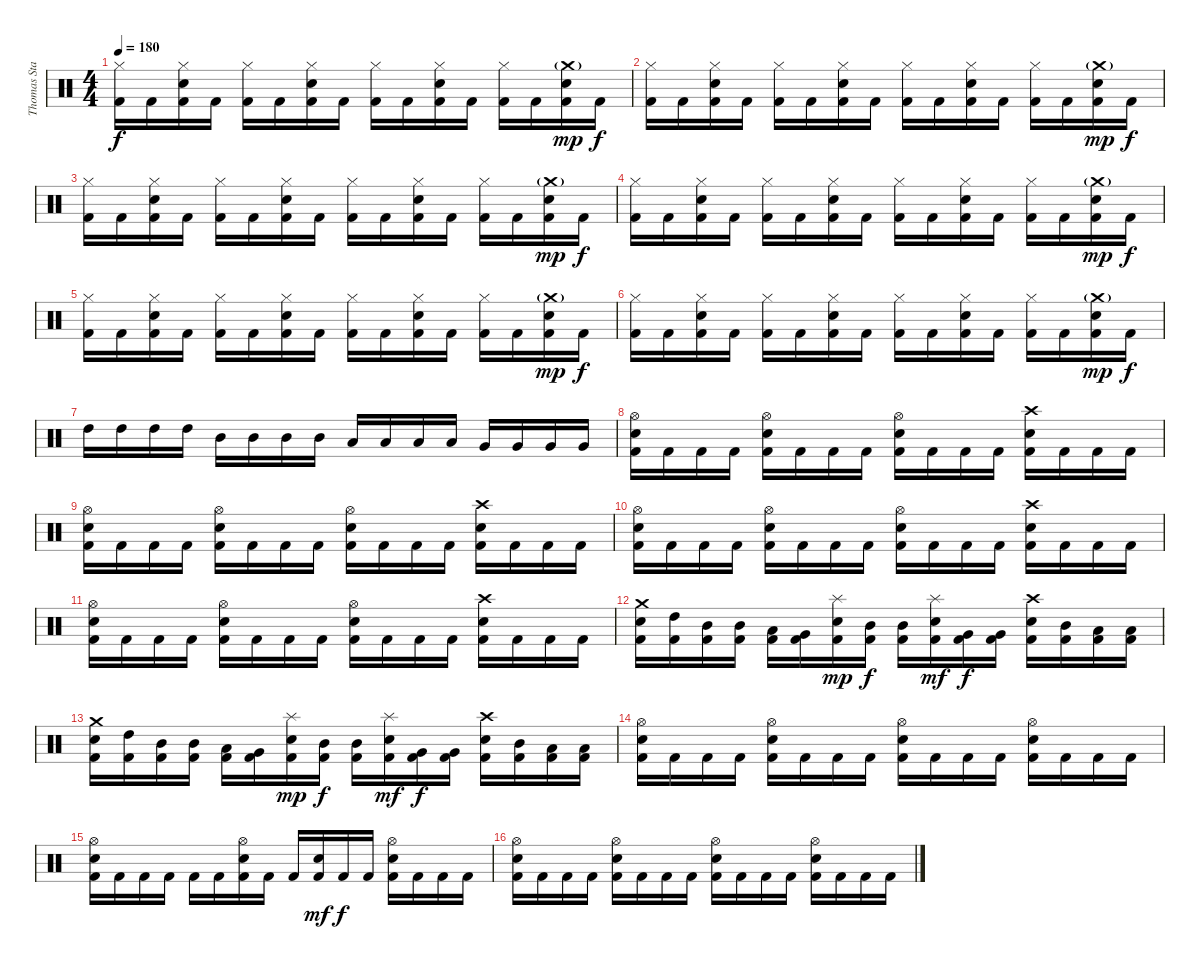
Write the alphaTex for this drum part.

\track ("Thomas Stauch" "Thomas Sta") {instrument percussion}
\staff {score}
\articulation defaults
\ts (4 4)
\tempo 180
\clef neutral
\ks c
("Hi-Hat (closed)" "Kick (hit) 2").16{dy f} "Kick (hit) 2".16 ("Hi-Hat (closed)" "Electric Snare (hit)" "Kick (hit) 2").16 "Kick (hit) 2".16 ("Hi-Hat (closed)" "Kick (hit) 2").16 "Kick (hit) 2".16 ("Hi-Hat (closed)" "Electric Snare (hit)" "Kick (hit) 2").16 "Kick (hit) 2".16 ("Hi-Hat (closed)" "Kick (hit) 2").16 "Kick (hit) 2".16 ("Hi-Hat (closed)" "Electric Snare (hit)" "Kick (hit) 2").16 "Kick (hit) 2".16 ("Hi-Hat (closed)" "Kick (hit) 2").16 "Kick (hit) 2".16 ("Crash medium (hit)"{g} "Electric Snare (hit)" "Kick (hit) 2").16{dy mp} "Kick (hit) 2".16{dy f} |
("Hi-Hat (closed)" "Kick (hit) 2").16 "Kick (hit) 2".16 ("Hi-Hat (closed)" "Electric Snare (hit)" "Kick (hit) 2").16 "Kick (hit) 2".16 ("Hi-Hat (closed)" "Kick (hit) 2").16 "Kick (hit) 2".16 ("Hi-Hat (closed)" "Electric Snare (hit)" "Kick (hit) 2").16 "Kick (hit) 2".16 ("Hi-Hat (closed)" "Kick (hit) 2").16 "Kick (hit) 2".16 ("Hi-Hat (closed)" "Electric Snare (hit)" "Kick (hit) 2").16 "Kick (hit) 2".16 ("Hi-Hat (closed)" "Kick (hit) 2").16 "Kick (hit) 2".16 ("Crash medium (hit)"{g} "Electric Snare (hit)" "Kick (hit) 2").16{dy mp} "Kick (hit) 2".16{dy f} |
("Hi-Hat (closed)" "Kick (hit) 2").16 "Kick (hit) 2".16 ("Hi-Hat (closed)" "Electric Snare (hit)" "Kick (hit) 2").16 "Kick (hit) 2".16 ("Hi-Hat (closed)" "Kick (hit) 2").16 "Kick (hit) 2".16 ("Hi-Hat (closed)" "Electric Snare (hit)" "Kick (hit) 2").16 "Kick (hit) 2".16 ("Hi-Hat (closed)" "Kick (hit) 2").16 "Kick (hit) 2".16 ("Hi-Hat (closed)" "Electric Snare (hit)" "Kick (hit) 2").16 "Kick (hit) 2".16 ("Hi-Hat (closed)" "Kick (hit) 2").16 "Kick (hit) 2".16 ("Crash medium (hit)"{g} "Electric Snare (hit)" "Kick (hit) 2").16{dy mp} "Kick (hit) 2".16{dy f} |
("Hi-Hat (closed)" "Kick (hit) 2").16 "Kick (hit) 2".16 ("Hi-Hat (closed)" "Electric Snare (hit)" "Kick (hit) 2").16 "Kick (hit) 2".16 ("Hi-Hat (closed)" "Kick (hit) 2").16 "Kick (hit) 2".16 ("Hi-Hat (closed)" "Electric Snare (hit)" "Kick (hit) 2").16 "Kick (hit) 2".16 ("Hi-Hat (closed)" "Kick (hit) 2").16 "Kick (hit) 2".16 ("Hi-Hat (closed)" "Electric Snare (hit)" "Kick (hit) 2").16 "Kick (hit) 2".16 ("Hi-Hat (closed)" "Kick (hit) 2").16 "Kick (hit) 2".16 ("Crash medium (hit)"{g} "Electric Snare (hit)" "Kick (hit) 2").16{dy mp} "Kick (hit) 2".16{dy f} |
("Hi-Hat (closed)" "Kick (hit) 2").16 "Kick (hit) 2".16 ("Hi-Hat (closed)" "Electric Snare (hit)" "Kick (hit) 2").16 "Kick (hit) 2".16 ("Hi-Hat (closed)" "Kick (hit) 2").16 "Kick (hit) 2".16 ("Hi-Hat (closed)" "Electric Snare (hit)" "Kick (hit) 2").16 "Kick (hit) 2".16 ("Hi-Hat (closed)" "Kick (hit) 2").16 "Kick (hit) 2".16 ("Hi-Hat (closed)" "Electric Snare (hit)" "Kick (hit) 2").16 "Kick (hit) 2".16 ("Hi-Hat (closed)" "Kick (hit) 2").16 "Kick (hit) 2".16 ("Crash medium (hit)"{g} "Electric Snare (hit)" "Kick (hit) 2").16{dy mp} "Kick (hit) 2".16{dy f} |
("Hi-Hat (closed)" "Kick (hit) 2").16 "Kick (hit) 2".16 ("Hi-Hat (closed)" "Electric Snare (hit)" "Kick (hit) 2").16 "Kick (hit) 2".16 ("Hi-Hat (closed)" "Kick (hit) 2").16 "Kick (hit) 2".16 ("Hi-Hat (closed)" "Electric Snare (hit)" "Kick (hit) 2").16 "Kick (hit) 2".16 ("Hi-Hat (closed)" "Kick (hit) 2").16 "Kick (hit) 2".16 ("Hi-Hat (closed)" "Electric Snare (hit)" "Kick (hit) 2").16 "Kick (hit) 2".16 ("Hi-Hat (closed)" "Kick (hit) 2").16 "Kick (hit) 2".16 ("Crash medium (hit)"{g} "Electric Snare (hit)" "Kick (hit) 2").16{dy mp} "Kick (hit) 2".16{dy f} |
"High Tom (hit)".16 "High Tom (hit)".16 "High Tom (hit)".16 "High Tom (hit)".16 "Mid Tom (hit)".16 "Mid Tom (hit)".16 "Mid Tom (hit)".16 "Mid Tom (hit)".16 "Low Tom (hit)".16 "Low Tom (hit)".16 "Low Tom (hit)".16 "Low Tom (hit)".16 "Very Low Tom (hit)".16 "Very Low Tom (hit)".16 "Very Low Tom (hit)".16 "Very Low Tom (hit)".16 |
("Hi-Hat (open)" "Electric Snare (hit)" "Kick (hit) 2").16 "Kick (hit) 2".16 "Kick (hit) 2".16 "Kick (hit) 2".16 ("Hi-Hat (open)" "Electric Snare (hit)" "Kick (hit) 2").16 "Kick (hit) 2".16 "Kick (hit) 2".16 "Kick (hit) 2".16 ("Hi-Hat (open)" "Electric Snare (hit)" "Kick (hit) 2").16 "Kick (hit) 2".16 "Kick (hit) 2".16 "Kick (hit) 2".16 ("Crash high (hit)" "Electric Snare (hit)" "Kick (hit) 2").16 "Kick (hit) 2".16 "Kick (hit) 2".16 "Kick (hit) 2".16 |
("Hi-Hat (open)" "Electric Snare (hit)" "Kick (hit) 2").16 "Kick (hit) 2".16 "Kick (hit) 2".16 "Kick (hit) 2".16 ("Hi-Hat (open)" "Electric Snare (hit)" "Kick (hit) 2").16 "Kick (hit) 2".16 "Kick (hit) 2".16 "Kick (hit) 2".16 ("Hi-Hat (open)" "Electric Snare (hit)" "Kick (hit) 2").16 "Kick (hit) 2".16 "Kick (hit) 2".16 "Kick (hit) 2".16 ("Crash high (hit)" "Electric Snare (hit)" "Kick (hit) 2").16 "Kick (hit) 2".16 "Kick (hit) 2".16 "Kick (hit) 2".16 |
("Hi-Hat (open)" "Electric Snare (hit)" "Kick (hit) 2").16 "Kick (hit) 2".16 "Kick (hit) 2".16 "Kick (hit) 2".16 ("Hi-Hat (open)" "Electric Snare (hit)" "Kick (hit) 2").16 "Kick (hit) 2".16 "Kick (hit) 2".16 "Kick (hit) 2".16 ("Hi-Hat (open)" "Electric Snare (hit)" "Kick (hit) 2").16 "Kick (hit) 2".16 "Kick (hit) 2".16 "Kick (hit) 2".16 ("Crash high (hit)" "Electric Snare (hit)" "Kick (hit) 2").16 "Kick (hit) 2".16 "Kick (hit) 2".16 "Kick (hit) 2".16 |
("Hi-Hat (open)" "Electric Snare (hit)" "Kick (hit) 2").16 "Kick (hit) 2".16 "Kick (hit) 2".16 "Kick (hit) 2".16 ("Hi-Hat (open)" "Electric Snare (hit)" "Kick (hit) 2").16 "Kick (hit) 2".16 "Kick (hit) 2".16 "Kick (hit) 2".16 ("Hi-Hat (open)" "Electric Snare (hit)" "Kick (hit) 2").16 "Kick (hit) 2".16 "Kick (hit) 2".16 "Kick (hit) 2".16 ("Crash high (hit)" "Electric Snare (hit)" "Kick (hit) 2").16 "Kick (hit) 2".16 "Kick (hit) 2".16 "Kick (hit) 2".16 |
("Crash medium (hit)" "Electric Snare (hit)" "Kick (hit) 2").16 ("High Tom (hit)" "Kick (hit) 2").16 ("Mid Tom (hit)" "Kick (hit) 2").16 ("Mid Tom (hit)" "Kick (hit) 2").16 ("Low Tom (hit)" "Kick (hit) 2").16 ("Very Low Tom (hit)" "Kick (hit) 2").16 ("Splash (hit)" "Electric Snare (hit)" "Kick (hit) 2").16{dy mp} ("Mid Tom (hit)" "Kick (hit) 2").16{dy f} ("Mid Tom (hit)" "Kick (hit) 2").16 ("Splash (hit)" "Electric Snare (hit)" "Kick (hit) 2").16{dy mf} ("Very Low Tom (hit)" "Kick (hit) 2").16{dy f} ("Very Low Tom (hit)" "Kick (hit) 2").16 ("Crash high (hit)" "Electric Snare (hit)" "Kick (hit) 2").16 ("Mid Tom (hit)" "Kick (hit) 2").16 ("Low Tom (hit)" "Kick (hit) 2").16 ("Low Tom (hit)" "Kick (hit) 2").16 |
("Crash medium (hit)" "Electric Snare (hit)" "Kick (hit) 2").16 ("High Tom (hit)" "Kick (hit) 2").16 ("Mid Tom (hit)" "Kick (hit) 2").16 ("Mid Tom (hit)" "Kick (hit) 2").16 ("Low Tom (hit)" "Kick (hit) 2").16 ("Very Low Tom (hit)" "Kick (hit) 2").16 ("Splash (hit)" "Electric Snare (hit)" "Kick (hit) 2").16{dy mp} ("Mid Tom (hit)" "Kick (hit) 2").16{dy f} ("Mid Tom (hit)" "Kick (hit) 2").16 ("Splash (hit)" "Electric Snare (hit)" "Kick (hit) 2").16{dy mf} ("Very Low Tom (hit)" "Kick (hit) 2").16{dy f} ("Very Low Tom (hit)" "Kick (hit) 2").16 ("Crash high (hit)" "Electric Snare (hit)" "Kick (hit) 2").16 ("Mid Tom (hit)" "Kick (hit) 2").16 ("Low Tom (hit)" "Kick (hit) 2").16 ("Low Tom (hit)" "Kick (hit) 2").16 |
("Hi-Hat (open)" "Electric Snare (hit)" "Kick (hit) 2").16 "Kick (hit) 2".16 "Kick (hit) 2".16 "Kick (hit) 2".16 ("Hi-Hat (open)" "Electric Snare (hit)" "Kick (hit) 2").16 "Kick (hit) 2".16 "Kick (hit) 2".16 "Kick (hit) 2".16 ("Hi-Hat (open)" "Electric Snare (hit)" "Kick (hit) 2").16 "Kick (hit) 2".16 "Kick (hit) 2".16 "Kick (hit) 2".16 ("Hi-Hat (open)" "Electric Snare (hit)" "Kick (hit) 2").16 "Kick (hit) 2".16 "Kick (hit) 2".16 "Kick (hit) 2".16 |
("Hi-Hat (open)" "Electric Snare (hit)" "Kick (hit) 2").16 "Kick (hit) 2".16 "Kick (hit) 2".16 "Kick (hit) 2".16 "Kick (hit) 2".16 "Kick (hit) 2".16 ("Hi-Hat (open)" "Electric Snare (hit)" "Kick (hit) 2").16 "Kick (hit) 2".16 "Kick (hit) 2".16 ("Electric Snare (hit)" "Kick (hit) 2").16{dy mf} "Kick (hit) 2".16{dy f} "Kick (hit) 2".16 ("Hi-Hat (open)" "Electric Snare (hit)" "Kick (hit) 2").16 "Kick (hit) 2".16 "Kick (hit) 2".16 "Kick (hit) 2".16 |
("Hi-Hat (open)" "Electric Snare (hit)" "Kick (hit) 2").16 "Kick (hit) 2".16 "Kick (hit) 2".16 "Kick (hit) 2".16 ("Hi-Hat (open)" "Electric Snare (hit)" "Kick (hit) 2").16 "Kick (hit) 2".16 "Kick (hit) 2".16 "Kick (hit) 2".16 ("Hi-Hat (open)" "Electric Snare (hit)" "Kick (hit) 2").16 "Kick (hit) 2".16 "Kick (hit) 2".16 "Kick (hit) 2".16 ("Hi-Hat (open)" "Electric Snare (hit)" "Kick (hit) 2").16 "Kick (hit) 2".16 "Kick (hit) 2".16 "Kick (hit) 2".16
